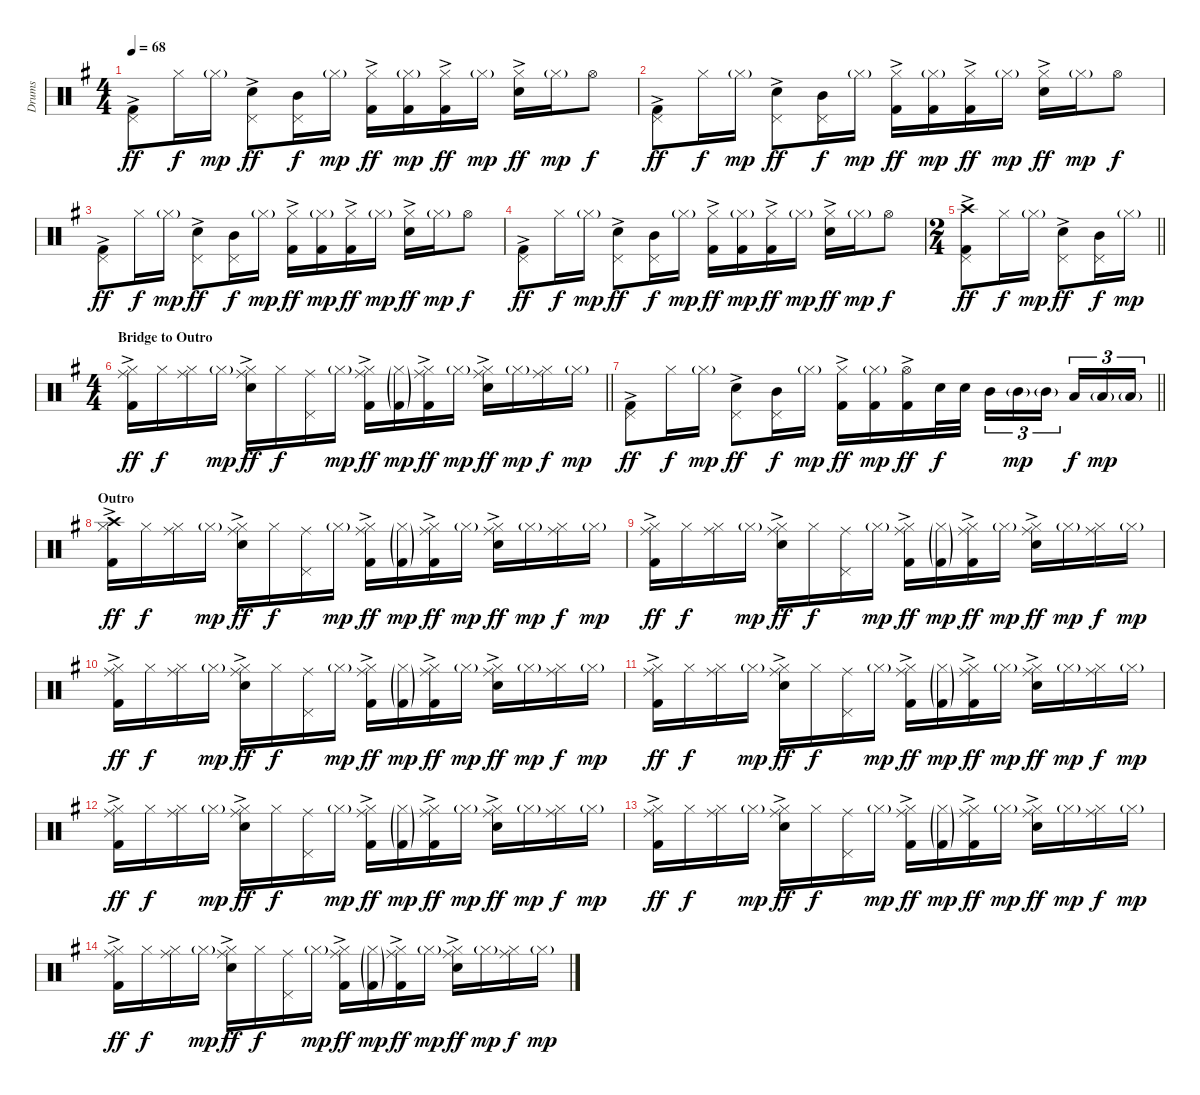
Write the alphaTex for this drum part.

\track ("Drums" "Drums") {instrument percussion}
\staff {score}
\articulation defaults
\ts (4 4)
\tempo 68
\clef neutral
\ks g
("Pedal Hi-Hat (hit)" "Kick (hit) 2"{ac}).8{dy ff} "Hi-Hat (closed)".16{dy f} "Hi-Hat (closed)"{g}.16{dy mp} ("Pedal Hi-Hat (hit)" "Snare (hit) 2"{ac}).8{dy ff} ("Pedal Hi-Hat (hit)" "Mid Tom (hit)").16{dy f} "Hi-Hat (closed)"{g}.16{dy mp} ("Hi-Hat (closed)" "Kick (hit) 2"{ac}).16{dy ff} ("Hi-Hat (closed)"{g} "Kick (hit) 2").16{dy mp} ("Hi-Hat (closed)" "Kick (hit) 2"{ac}).16{dy ff} "Hi-Hat (closed)"{g}.16{dy mp} ("Hi-Hat (closed)" "Snare (hit) 2"{ac}).16{dy ff} "Hi-Hat (closed)"{g}.16{dy mp} "Hi-Hat (open)".8{dy f} |
("Pedal Hi-Hat (hit)" "Kick (hit) 2"{ac}).8{dy ff} "Hi-Hat (closed)".16{dy f} "Hi-Hat (closed)"{g}.16{dy mp} ("Pedal Hi-Hat (hit)" "Snare (hit) 2"{ac}).8{dy ff} ("Pedal Hi-Hat (hit)" "Mid Tom (hit)").16{dy f} "Hi-Hat (closed)"{g}.16{dy mp} ("Hi-Hat (closed)" "Kick (hit) 2"{ac}).16{dy ff} ("Hi-Hat (closed)"{g} "Kick (hit) 2").16{dy mp} ("Hi-Hat (closed)" "Kick (hit) 2"{ac}).16{dy ff} "Hi-Hat (closed)"{g}.16{dy mp} ("Hi-Hat (closed)" "Snare (hit) 2"{ac}).16{dy ff} "Hi-Hat (closed)"{g}.16{dy mp} "Hi-Hat (open)".8{dy f} |
("Pedal Hi-Hat (hit)" "Kick (hit) 2"{ac}).8{dy ff} "Hi-Hat (closed)".16{dy f} "Hi-Hat (closed)"{g}.16{dy mp} ("Pedal Hi-Hat (hit)" "Snare (hit) 2"{ac}).8{dy ff} ("Pedal Hi-Hat (hit)" "Mid Tom (hit)").16{dy f} "Hi-Hat (closed)"{g}.16{dy mp} ("Hi-Hat (closed)" "Kick (hit) 2"{ac}).16{dy ff} ("Hi-Hat (closed)"{g} "Kick (hit) 2").16{dy mp} ("Hi-Hat (closed)" "Kick (hit) 2"{ac}).16{dy ff} "Hi-Hat (closed)"{g}.16{dy mp} ("Hi-Hat (closed)" "Snare (hit) 2"{ac}).16{dy ff} "Hi-Hat (closed)"{g}.16{dy mp} "Hi-Hat (open)".8{dy f} |
("Pedal Hi-Hat (hit)" "Kick (hit) 2"{ac}).8{dy ff} "Hi-Hat (closed)".16{dy f} "Hi-Hat (closed)"{g}.16{dy mp} ("Pedal Hi-Hat (hit)" "Snare (hit) 2"{ac}).8{dy ff} ("Pedal Hi-Hat (hit)" "Mid Tom (hit)").16{dy f} "Hi-Hat (closed)"{g}.16{dy mp} ("Hi-Hat (closed)" "Kick (hit) 2"{ac}).16{dy ff} ("Hi-Hat (closed)"{g} "Kick (hit) 2").16{dy mp} ("Hi-Hat (closed)" "Kick (hit) 2"{ac}).16{dy ff} "Hi-Hat (closed)"{g}.16{dy mp} ("Hi-Hat (closed)" "Snare (hit) 2"{ac}).16{dy ff} "Hi-Hat (closed)"{g}.16{dy mp} "Hi-Hat (open)".8{dy f} |
\ts (2 4)
\barLineRight lightlight
("Pedal Hi-Hat (hit)" "Crash high (hit)" "Kick (hit) 2"{ac}).8{dy ff} "Hi-Hat (closed)".16{dy f} "Hi-Hat (closed)"{g}.16{dy mp} ("Pedal Hi-Hat (hit)" "Snare (hit) 2"{ac}).8{dy ff} ("Pedal Hi-Hat (hit)" "Mid Tom (hit)").16{dy f} "Hi-Hat (closed)"{g}.16{dy mp} |
\ts (4 4)
\section ("" "Bridge to Outro")
\barLineRight lightlight
("Hi-Hat (closed)" "Ride (middle)" "Kick (hit) 2"{ac}).16{dy ff} "Hi-Hat (closed)".16{dy f} ("Hi-Hat (closed)" "Ride (middle)").16 "Hi-Hat (closed)"{g}.16{dy mp} ("Hi-Hat (closed)" "Ride (middle)" "Snare (hit) 2"{ac}).16{dy ff} "Hi-Hat (closed)".16{dy f} ("Pedal Hi-Hat (hit)" "Ride (middle)").16 "Hi-Hat (closed)"{g}.16{dy mp} ("Hi-Hat (closed)" "Ride (middle)" "Kick (hit) 2"{ac}).16{dy ff} ("Hi-Hat (closed)"{g} "Kick (hit) 2"{g}).16{dy mp} ("Hi-Hat (closed)" "Ride (middle)" "Kick (hit) 2"{ac}).16{dy ff} "Hi-Hat (closed)"{g}.16{dy mp} ("Hi-Hat (closed)" "Ride (middle)" "Snare (hit) 2"{ac}).16{dy ff} "Hi-Hat (closed)"{g}.16{dy mp} ("Hi-Hat (closed)" "Ride (middle)").16{dy f} "Hi-Hat (closed)"{g}.16{dy mp} |
\section ("" "")
\barLineRight lightlight
("Pedal Hi-Hat (hit)" "Kick (hit) 2"{ac}).8{dy ff} "Hi-Hat (closed)".16{dy f} "Hi-Hat (closed)"{g}.16{dy mp} ("Pedal Hi-Hat (hit)" "Snare (hit) 2"{ac}).8{dy ff} ("Pedal Hi-Hat (hit)" "Mid Tom (hit)").16{dy f} "Hi-Hat (closed)"{g}.16{dy mp} ("Hi-Hat (closed)" "Kick (hit) 2"{ac}).16{dy ff} ("Hi-Hat (closed)"{g} "Kick (hit) 2").16{dy mp} ("Hi-Hat (open)" "Kick (hit) 2"{ac}).16{dy ff} "Snare (hit) 2".32{dy f} "Snare (hit) 2".32 "Mid Tom (hit)".16{tu (3 2)} "Mid Tom (hit)"{g}.16{tu (3 2) dy mp} "Mid Tom (hit)"{g}.16{tu (3 2) beam splitsecondary} "Low Tom (hit)".16{tu (3 2) dy f} "Low Tom (hit)"{g}.16{tu (3 2) dy mp} "Low Floor Tom (hit)"{g}.16{tu (3 2)} |
\section ("" "Outro")
("Hi-Hat (closed)" "Crash high (hit)" "Kick (hit) 2"{ac}).16{dy ff} "Hi-Hat (closed)".16{dy f} ("Hi-Hat (closed)" "Ride (middle)").16 "Hi-Hat (closed)"{g}.16{dy mp} ("Hi-Hat (closed)" "Ride (middle)" "Snare (hit) 2"{ac}).16{dy ff} "Hi-Hat (closed)".16{dy f} ("Pedal Hi-Hat (hit)" "Ride (middle)").16 "Hi-Hat (closed)"{g}.16{dy mp} ("Hi-Hat (closed)" "Ride (middle)" "Kick (hit) 2"{ac}).16{dy ff} ("Hi-Hat (closed)"{g} "Kick (hit) 2"{g}).16{dy mp} ("Hi-Hat (closed)" "Ride (middle)" "Kick (hit) 2"{ac}).16{dy ff} "Hi-Hat (closed)"{g}.16{dy mp} ("Hi-Hat (closed)" "Ride (middle)" "Snare (hit) 2"{ac}).16{dy ff} "Hi-Hat (closed)"{g}.16{dy mp} ("Hi-Hat (closed)" "Ride (middle)").16{dy f} "Hi-Hat (closed)"{g}.16{dy mp} |
("Hi-Hat (closed)" "Ride (middle)" "Kick (hit) 2"{ac}).16{dy ff} "Hi-Hat (closed)".16{dy f} ("Hi-Hat (closed)" "Ride (middle)").16 "Hi-Hat (closed)"{g}.16{dy mp} ("Hi-Hat (closed)" "Ride (middle)" "Snare (hit) 2"{ac}).16{dy ff} "Hi-Hat (closed)".16{dy f} ("Pedal Hi-Hat (hit)" "Ride (middle)").16 "Hi-Hat (closed)"{g}.16{dy mp} ("Hi-Hat (closed)" "Ride (middle)" "Kick (hit) 2"{ac}).16{dy ff} ("Hi-Hat (closed)"{g} "Kick (hit) 2"{g}).16{dy mp} ("Hi-Hat (closed)" "Ride (middle)" "Kick (hit) 2"{ac}).16{dy ff} "Hi-Hat (closed)"{g}.16{dy mp} ("Hi-Hat (closed)" "Ride (middle)" "Snare (hit) 2"{ac}).16{dy ff} "Hi-Hat (closed)"{g}.16{dy mp} ("Hi-Hat (closed)" "Ride (middle)").16{dy f} "Hi-Hat (closed)"{g}.16{dy mp} |
("Hi-Hat (closed)" "Ride (middle)" "Kick (hit) 2"{ac}).16{dy ff} "Hi-Hat (closed)".16{dy f} ("Hi-Hat (closed)" "Ride (middle)").16 "Hi-Hat (closed)"{g}.16{dy mp} ("Hi-Hat (closed)" "Ride (middle)" "Snare (hit) 2"{ac}).16{dy ff} "Hi-Hat (closed)".16{dy f} ("Pedal Hi-Hat (hit)" "Ride (middle)").16 "Hi-Hat (closed)"{g}.16{dy mp} ("Hi-Hat (closed)" "Ride (middle)" "Kick (hit) 2"{ac}).16{dy ff} ("Hi-Hat (closed)"{g} "Kick (hit) 2"{g}).16{dy mp} ("Hi-Hat (closed)" "Ride (middle)" "Kick (hit) 2"{ac}).16{dy ff} "Hi-Hat (closed)"{g}.16{dy mp} ("Hi-Hat (closed)" "Ride (middle)" "Snare (hit) 2"{ac}).16{dy ff} "Hi-Hat (closed)"{g}.16{dy mp} ("Hi-Hat (closed)" "Ride (middle)").16{dy f} "Hi-Hat (closed)"{g}.16{dy mp} |
("Hi-Hat (closed)" "Ride (middle)" "Kick (hit) 2"{ac}).16{dy ff} "Hi-Hat (closed)".16{dy f} ("Hi-Hat (closed)" "Ride (middle)").16 "Hi-Hat (closed)"{g}.16{dy mp} ("Hi-Hat (closed)" "Ride (middle)" "Snare (hit) 2"{ac}).16{dy ff} "Hi-Hat (closed)".16{dy f} ("Pedal Hi-Hat (hit)" "Ride (middle)").16 "Hi-Hat (closed)"{g}.16{dy mp} ("Hi-Hat (closed)" "Ride (middle)" "Kick (hit) 2"{ac}).16{dy ff} ("Hi-Hat (closed)"{g} "Kick (hit) 2"{g}).16{dy mp} ("Hi-Hat (closed)" "Ride (middle)" "Kick (hit) 2"{ac}).16{dy ff} "Hi-Hat (closed)"{g}.16{dy mp} ("Hi-Hat (closed)" "Ride (middle)" "Snare (hit) 2"{ac}).16{dy ff} "Hi-Hat (closed)"{g}.16{dy mp} ("Hi-Hat (closed)" "Ride (middle)").16{dy f} "Hi-Hat (closed)"{g}.16{dy mp} |
("Hi-Hat (closed)" "Ride (middle)" "Kick (hit) 2"{ac}).16{dy ff} "Hi-Hat (closed)".16{dy f} ("Hi-Hat (closed)" "Ride (middle)").16 "Hi-Hat (closed)"{g}.16{dy mp} ("Hi-Hat (closed)" "Ride (middle)" "Snare (hit) 2"{ac}).16{dy ff} "Hi-Hat (closed)".16{dy f} ("Pedal Hi-Hat (hit)" "Ride (middle)").16 "Hi-Hat (closed)"{g}.16{dy mp} ("Hi-Hat (closed)" "Ride (middle)" "Kick (hit) 2"{ac}).16{dy ff} ("Hi-Hat (closed)"{g} "Kick (hit) 2"{g}).16{dy mp} ("Hi-Hat (closed)" "Ride (middle)" "Kick (hit) 2"{ac}).16{dy ff} "Hi-Hat (closed)"{g}.16{dy mp} ("Hi-Hat (closed)" "Ride (middle)" "Snare (hit) 2"{ac}).16{dy ff} "Hi-Hat (closed)"{g}.16{dy mp} ("Hi-Hat (closed)" "Ride (middle)").16{dy f} "Hi-Hat (closed)"{g}.16{dy mp} |
("Hi-Hat (closed)" "Ride (middle)" "Kick (hit) 2"{ac}).16{dy ff} "Hi-Hat (closed)".16{dy f} ("Hi-Hat (closed)" "Ride (middle)").16 "Hi-Hat (closed)"{g}.16{dy mp} ("Hi-Hat (closed)" "Ride (middle)" "Snare (hit) 2"{ac}).16{dy ff} "Hi-Hat (closed)".16{dy f} ("Pedal Hi-Hat (hit)" "Ride (middle)").16 "Hi-Hat (closed)"{g}.16{dy mp} ("Hi-Hat (closed)" "Ride (middle)" "Kick (hit) 2"{ac}).16{dy ff} ("Hi-Hat (closed)"{g} "Kick (hit) 2"{g}).16{dy mp} ("Hi-Hat (closed)" "Ride (middle)" "Kick (hit) 2"{ac}).16{dy ff} "Hi-Hat (closed)"{g}.16{dy mp} ("Hi-Hat (closed)" "Ride (middle)" "Snare (hit) 2"{ac}).16{dy ff} "Hi-Hat (closed)"{g}.16{dy mp} ("Hi-Hat (closed)" "Ride (middle)").16{dy f} "Hi-Hat (closed)"{g}.16{dy mp} |
("Hi-Hat (closed)" "Ride (middle)" "Kick (hit) 2"{ac}).16{dy ff} "Hi-Hat (closed)".16{dy f} ("Hi-Hat (closed)" "Ride (middle)").16 "Hi-Hat (closed)"{g}.16{dy mp} ("Hi-Hat (closed)" "Ride (middle)" "Snare (hit) 2"{ac}).16{dy ff} "Hi-Hat (closed)".16{dy f} ("Pedal Hi-Hat (hit)" "Ride (middle)").16 "Hi-Hat (closed)"{g}.16{dy mp} ("Hi-Hat (closed)" "Ride (middle)" "Kick (hit) 2"{ac}).16{dy ff} ("Hi-Hat (closed)"{g} "Kick (hit) 2"{g}).16{dy mp} ("Hi-Hat (closed)" "Ride (middle)" "Kick (hit) 2"{ac}).16{dy ff} "Hi-Hat (closed)"{g}.16{dy mp} ("Hi-Hat (closed)" "Ride (middle)" "Snare (hit) 2"{ac}).16{dy ff} "Hi-Hat (closed)"{g}.16{dy mp} ("Hi-Hat (closed)" "Ride (middle)").16{dy f} "Hi-Hat (closed)"{g}.16{dy mp}
